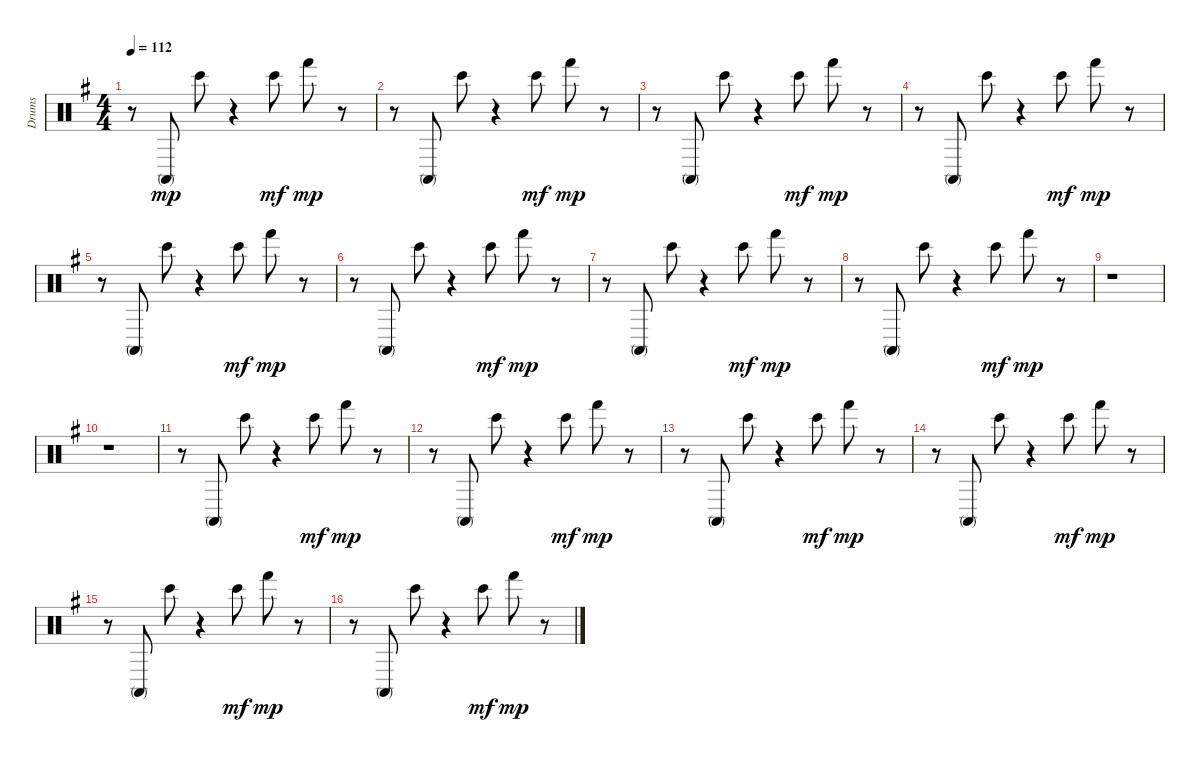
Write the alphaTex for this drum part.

\track ("Drums" "Drums") {instrument percussion}
\staff {score}
\articulation defaults
\ts (4 4)
\tempo 112
\clef neutral
\ks g
r.8{dy mp} "Conga high (mute)".8 "Bongo High (hit)".8 r.4 "Bongo High (hit)".8{dy mf} "Hand (hit)".8{dy mp} r.8 |
r.8 "Conga high (mute)".8 "Bongo High (hit)".8 r.4 "Bongo High (hit)".8{dy mf} "Hand (hit)".8{dy mp} r.8 |
r.8 "Conga high (mute)".8 "Bongo High (hit)".8 r.4 "Bongo High (hit)".8{dy mf} "Hand (hit)".8{dy mp} r.8 |
r.8 "Conga high (mute)".8 "Bongo High (hit)".8 r.4 "Bongo High (hit)".8{dy mf} "Hand (hit)".8{dy mp} r.8 |
r.8 "Conga high (mute)".8 "Bongo High (hit)".8 r.4 "Bongo High (hit)".8{dy mf} "Hand (hit)".8{dy mp} r.8 |
r.8 "Conga high (mute)".8 "Bongo High (hit)".8 r.4 "Bongo High (hit)".8{dy mf} "Hand (hit)".8{dy mp} r.8 |
r.8 "Conga high (mute)".8 "Bongo High (hit)".8 r.4 "Bongo High (hit)".8{dy mf} "Hand (hit)".8{dy mp} r.8 |
r.8 "Conga high (mute)".8 "Bongo High (hit)".8 r.4 "Bongo High (hit)".8{dy mf} "Hand (hit)".8{dy mp} r.8 |
r.1 |
r.1 |
r.8 "Conga high (mute)".8 "Bongo High (hit)".8 r.4 "Bongo High (hit)".8{dy mf} "Hand (hit)".8{dy mp} r.8 |
r.8 "Conga high (mute)".8 "Bongo High (hit)".8 r.4 "Bongo High (hit)".8{dy mf} "Hand (hit)".8{dy mp} r.8 |
r.8 "Conga high (mute)".8 "Bongo High (hit)".8 r.4 "Bongo High (hit)".8{dy mf} "Hand (hit)".8{dy mp} r.8 |
r.8 "Conga high (mute)".8 "Bongo High (hit)".8 r.4 "Bongo High (hit)".8{dy mf} "Hand (hit)".8{dy mp} r.8 |
r.8 "Conga high (mute)".8 "Bongo High (hit)".8 r.4 "Bongo High (hit)".8{dy mf} "Hand (hit)".8{dy mp} r.8 |
r.8 "Conga high (mute)".8 "Bongo High (hit)".8 r.4 "Bongo High (hit)".8{dy mf} "Hand (hit)".8{dy mp} r.8
